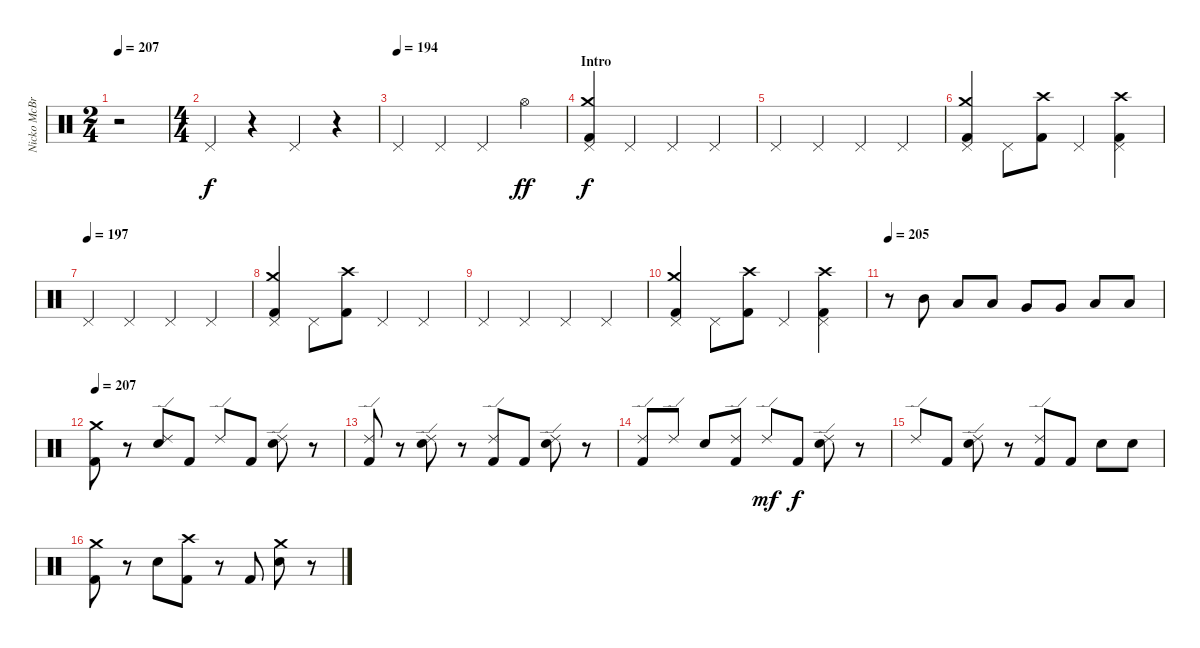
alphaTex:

\track ("Nicko McBrain" "Nicko McBr") {instrument percussion}
\staff {score}
\articulation defaults
\ts (2 4)
\tempo 207
\tempo 192
\tempo 207
\clef neutral
\ks c
r.2{dy f} |
\ts (4 4)
"Pedal Hi-Hat (hit)".4 r.4 "Pedal Hi-Hat (hit)".4 r.4 |
\tempo (194)
"Pedal Hi-Hat (hit)".4 "Pedal Hi-Hat (hit)".4 "Pedal Hi-Hat (hit)".4 "Hi-Hat (open)".4{dy ff} |
\section ("" "Intro")
("Crash medium (hit)" "Pedal Hi-Hat (hit)" "Kick (hit) 2").4{dy f} "Pedal Hi-Hat (hit)".4 "Pedal Hi-Hat (hit)".4 "Pedal Hi-Hat (hit)".4 |
"Pedal Hi-Hat (hit)".4 "Pedal Hi-Hat (hit)".4 "Pedal Hi-Hat (hit)".4 "Pedal Hi-Hat (hit)".4 |
("Crash medium (hit)" "Pedal Hi-Hat (hit)" "Kick (hit) 2").4 "Pedal Hi-Hat (hit)".8 ("Crash high (hit)" "Kick (hit) 2").8 "Pedal Hi-Hat (hit)".4 ("Crash high (hit)" "Pedal Hi-Hat (hit)" "Kick (hit) 2").4 |
\tempo (197)
"Pedal Hi-Hat (hit)".4 "Pedal Hi-Hat (hit)".4 "Pedal Hi-Hat (hit)".4 "Pedal Hi-Hat (hit)".4 |
("Crash medium (hit)" "Pedal Hi-Hat (hit)" "Kick (hit) 2").4 "Pedal Hi-Hat (hit)".8 ("Crash high (hit)" "Kick (hit) 2").8 "Pedal Hi-Hat (hit)".4 "Pedal Hi-Hat (hit)".4 |
"Pedal Hi-Hat (hit)".4 "Pedal Hi-Hat (hit)".4 "Pedal Hi-Hat (hit)".4 "Pedal Hi-Hat (hit)".4 |
("Crash medium (hit)" "Pedal Hi-Hat (hit)" "Kick (hit) 2").4 "Pedal Hi-Hat (hit)".8 ("Crash high (hit)" "Kick (hit) 2").8 "Pedal Hi-Hat (hit)".4 ("Crash high (hit)" "Pedal Hi-Hat (hit)" "Kick (hit) 2").4 |
\tempo 205
r.8 "Mid Tom (hit)".8 "Low Tom (hit)".8 "Low Tom (hit)".8 "Very Low Tom (hit)".8 "Very Low Tom (hit)".8 "Low Floor Tom (hit)".8 "Low Floor Tom (hit)".8 |
\tempo 207
("Crash medium (hit)" "Kick (hit) 2").8 r.8 ("Ride (edge) 2" "Snare (hit) 2").8 "Kick (hit) 2".8 "Ride (edge) 2".8 "Kick (hit) 2".8 ("Ride (edge) 2" "Snare (hit) 2").8 r.8 |
("Ride (edge) 2" "Kick (hit) 2").8 r.8 ("Ride (edge) 2" "Snare (hit) 2").8 r.8 ("Ride (edge) 2" "Kick (hit) 2").8 "Kick (hit) 2".8 ("Ride (edge) 2" "Snare (hit) 2").8 r.8 |
("Ride (edge) 2" "Kick (hit) 2").8 "Ride (edge) 2".8 "Snare (hit) 2".8 ("Ride (edge) 2" "Kick (hit) 2").8 "Ride (edge) 2".8{dy mf} "Kick (hit) 2".8{dy f} ("Ride (edge) 2" "Snare (hit) 2").8 r.8 |
"Ride (edge) 2".8 "Kick (hit) 2".8 ("Ride (edge) 2" "Snare (hit) 2").8 r.8 ("Ride (edge) 2" "Kick (hit) 2").8 "Kick (hit) 2".8 "Snare (hit) 2".8 "Snare (hit) 2".8 |
("Crash medium (hit)" "Kick (hit) 2").8 r.8 "Snare (hit) 2".8 ("Crash high (hit)" "Kick (hit) 2").8 r.8 "Kick (hit) 2".8 ("Crash medium (hit)" "Snare (hit) 2").8 r.8
